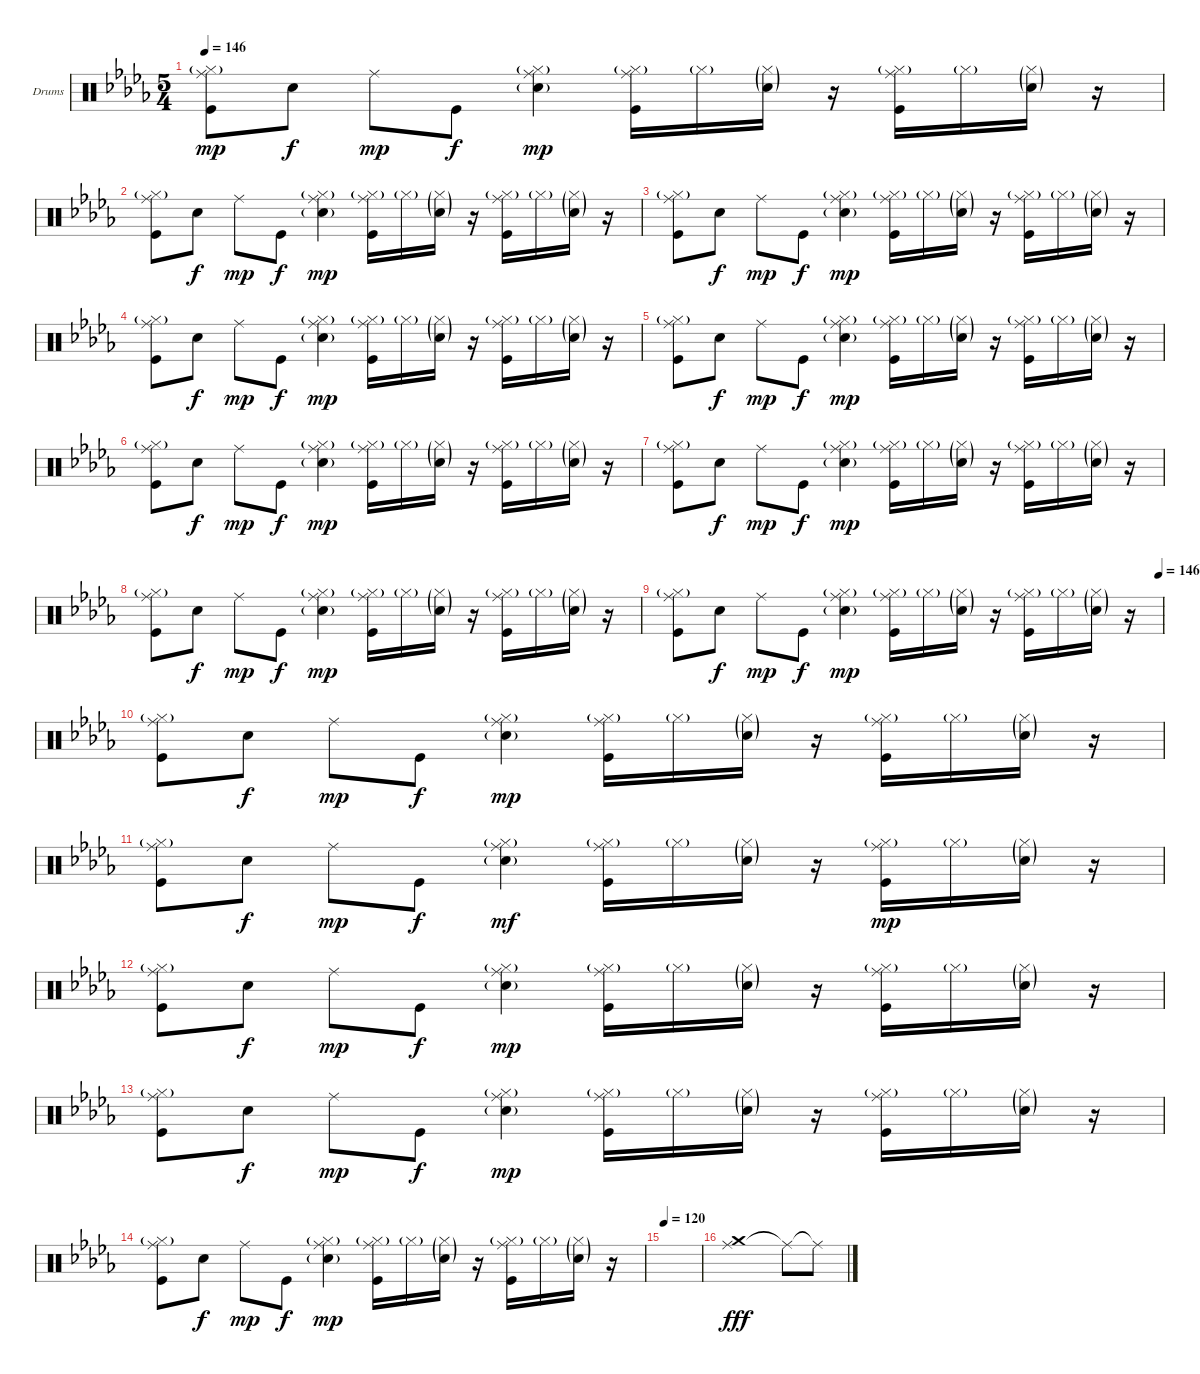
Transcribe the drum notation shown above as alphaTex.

\bracketExtendMode groupsimilarinstruments
\firstSystemTrackNameOrientation horizontal
\otherSystemsTrackNameOrientation horizontal
\track ("Drumkit" "Drums") {instrument percussion}
\staff {score}
\articulation defaults
\ts (5 4)
\tempo 146
\clef neutral
\ks db
("Hi-Hat (closed)"{g} "Ride (middle)" "Kick (hit)").8{dy mp} "Snare (hit) 2".8{dy f} "Ride (middle)".8{dy mp} "Kick (hit)".8{dy f} ("Hi-Hat (closed)"{g} "Ride (middle)" "Snare (hit) 2"{g}).4{dy mp} ("Hi-Hat (closed)"{g} "Ride (middle)" "Kick (hit)").16 "Hi-Hat (closed)"{g}.16 ("Hi-Hat (closed)"{g} "Snare (hit) 2"{g}).16 r.16 ("Hi-Hat (closed)"{g} "Ride (middle)" "Kick (hit)").16 "Hi-Hat (closed)"{g}.16 ("Hi-Hat (closed)"{g} "Snare (hit) 2"{g}).16 r.16 |
("Hi-Hat (closed)"{g} "Ride (middle)" "Kick (hit)").8 "Snare (hit) 2".8{dy f} "Ride (middle)".8{dy mp} "Kick (hit)".8{dy f} ("Hi-Hat (closed)"{g} "Ride (middle)" "Snare (hit) 2"{g}).4{dy mp} ("Hi-Hat (closed)"{g} "Ride (middle)" "Kick (hit)").16 "Hi-Hat (closed)"{g}.16 ("Hi-Hat (closed)"{g} "Snare (hit) 2"{g}).16 r.16 ("Hi-Hat (closed)"{g} "Ride (middle)" "Kick (hit)").16 "Hi-Hat (closed)"{g}.16 ("Hi-Hat (closed)"{g} "Snare (hit) 2"{g}).16 r.16 |
("Hi-Hat (closed)"{g} "Ride (middle)" "Kick (hit)").8 "Snare (hit) 2".8{dy f} "Ride (middle)".8{dy mp} "Kick (hit)".8{dy f} ("Hi-Hat (closed)"{g} "Ride (middle)" "Snare (hit) 2"{g}).4{dy mp} ("Hi-Hat (closed)"{g} "Ride (middle)" "Kick (hit)").16 "Hi-Hat (closed)"{g}.16 ("Hi-Hat (closed)"{g} "Snare (hit) 2"{g}).16 r.16 ("Hi-Hat (closed)"{g} "Ride (middle)" "Kick (hit)").16 "Hi-Hat (closed)"{g}.16 ("Hi-Hat (closed)"{g} "Snare (hit) 2"{g}).16 r.16 |
("Hi-Hat (closed)"{g} "Ride (middle)" "Kick (hit)").8 "Snare (hit) 2".8{dy f} "Ride (middle)".8{dy mp} "Kick (hit)".8{dy f} ("Hi-Hat (closed)"{g} "Ride (middle)" "Snare (hit) 2"{g}).4{dy mp} ("Hi-Hat (closed)"{g} "Ride (middle)" "Kick (hit)").16 "Hi-Hat (closed)"{g}.16 ("Hi-Hat (closed)"{g} "Snare (hit) 2"{g}).16 r.16 ("Hi-Hat (closed)"{g} "Ride (middle)" "Kick (hit)").16 "Hi-Hat (closed)"{g}.16 ("Hi-Hat (closed)"{g} "Snare (hit) 2"{g}).16 r.16 |
("Hi-Hat (closed)"{g} "Ride (middle)" "Kick (hit)").8 "Snare (hit) 2".8{dy f} "Ride (middle)".8{dy mp} "Kick (hit)".8{dy f} ("Hi-Hat (closed)"{g} "Ride (middle)" "Snare (hit) 2"{g}).4{dy mp} ("Hi-Hat (closed)"{g} "Ride (middle)" "Kick (hit)").16 "Hi-Hat (closed)"{g}.16 ("Hi-Hat (closed)"{g} "Snare (hit) 2"{g}).16 r.16 ("Hi-Hat (closed)"{g} "Ride (middle)" "Kick (hit)").16 "Hi-Hat (closed)"{g}.16 ("Hi-Hat (closed)"{g} "Snare (hit) 2"{g}).16 r.16 |
("Hi-Hat (closed)"{g} "Ride (middle)" "Kick (hit)").8 "Snare (hit) 2".8{dy f} "Ride (middle)".8{dy mp} "Kick (hit)".8{dy f} ("Hi-Hat (closed)"{g} "Ride (middle)" "Snare (hit) 2"{g}).4{dy mp} ("Hi-Hat (closed)"{g} "Ride (middle)" "Kick (hit)").16 "Hi-Hat (closed)"{g}.16 ("Hi-Hat (closed)"{g} "Snare (hit) 2"{g}).16 r.16 ("Hi-Hat (closed)"{g} "Ride (middle)" "Kick (hit)").16 "Hi-Hat (closed)"{g}.16 ("Hi-Hat (closed)"{g} "Snare (hit) 2"{g}).16 r.16 |
("Hi-Hat (closed)"{g} "Ride (middle)" "Kick (hit)").8 "Snare (hit) 2".8{dy f} "Ride (middle)".8{dy mp} "Kick (hit)".8{dy f} ("Hi-Hat (closed)"{g} "Ride (middle)" "Snare (hit) 2"{g}).4{dy mp} ("Hi-Hat (closed)"{g} "Ride (middle)" "Kick (hit)").16 "Hi-Hat (closed)"{g}.16 ("Hi-Hat (closed)"{g} "Snare (hit) 2"{g}).16 r.16 ("Hi-Hat (closed)"{g} "Ride (middle)" "Kick (hit)").16 "Hi-Hat (closed)"{g}.16 ("Hi-Hat (closed)"{g} "Snare (hit) 2"{g}).16 r.16 |
("Hi-Hat (closed)"{g} "Ride (middle)" "Kick (hit)").8 "Snare (hit) 2".8{dy f} "Ride (middle)".8{dy mp} "Kick (hit)".8{dy f} ("Hi-Hat (closed)"{g} "Ride (middle)" "Snare (hit) 2"{g}).4{dy mp} ("Hi-Hat (closed)"{g} "Ride (middle)" "Kick (hit)").16 "Hi-Hat (closed)"{g}.16 ("Hi-Hat (closed)"{g} "Snare (hit) 2"{g}).16 r.16 ("Hi-Hat (closed)"{g} "Ride (middle)" "Kick (hit)").16 "Hi-Hat (closed)"{g}.16 ("Hi-Hat (closed)"{g} "Snare (hit) 2"{g}).16 r.16 |
\tempo (146 0.99375)
("Hi-Hat (closed)"{g} "Ride (middle)" "Kick (hit)").8 "Snare (hit) 2".8{dy f} "Ride (middle)".8{dy mp} "Kick (hit)".8{dy f} ("Hi-Hat (closed)"{g} "Ride (middle)" "Snare (hit) 2"{g}).4{dy mp} ("Hi-Hat (closed)"{g} "Ride (middle)" "Kick (hit)").16 "Hi-Hat (closed)"{g}.16 ("Hi-Hat (closed)"{g} "Snare (hit) 2"{g}).16 r.16 ("Hi-Hat (closed)"{g} "Ride (middle)" "Kick (hit)").16 "Hi-Hat (closed)"{g}.16 ("Hi-Hat (closed)"{g} "Snare (hit) 2"{g}).16 r.16 |
("Hi-Hat (closed)"{g} "Ride (middle)" "Kick (hit)").8 "Snare (hit) 2".8{dy f} "Ride (middle)".8{dy mp} "Kick (hit)".8{dy f} ("Hi-Hat (closed)"{g} "Ride (middle)" "Snare (hit) 2"{g}).4{dy mp} ("Hi-Hat (closed)"{g} "Ride (middle)" "Kick (hit)").16 "Hi-Hat (closed)"{g}.16 ("Hi-Hat (closed)"{g} "Snare (hit) 2"{g}).16 r.16 ("Hi-Hat (closed)"{g} "Ride (middle)" "Kick (hit)").16 "Hi-Hat (closed)"{g}.16 ("Hi-Hat (closed)"{g} "Snare (hit) 2"{g}).16 r.16 |
("Hi-Hat (closed)"{g} "Ride (middle)" "Kick (hit)").8 "Snare (hit) 2".8{dy f} "Ride (middle)".8{dy mp} "Kick (hit)".8{dy f} ("Hi-Hat (closed)"{g} "Ride (middle)" "Snare (hit) 2"{g}).4{dy mf} ("Hi-Hat (closed)"{g} "Ride (middle)" "Kick (hit)").16 "Hi-Hat (closed)"{g}.16 ("Hi-Hat (closed)"{g} "Snare (hit) 2"{g}).16 r.16 ("Hi-Hat (closed)"{g} "Ride (middle)" "Kick (hit)").16{dy mp} "Hi-Hat (closed)"{g}.16 ("Hi-Hat (closed)"{g} "Snare (hit) 2"{g}).16 r.16 |
("Hi-Hat (closed)"{g} "Ride (middle)" "Kick (hit)").8 "Snare (hit) 2".8{dy f} "Ride (middle)".8{dy mp} "Kick (hit)".8{dy f} ("Hi-Hat (closed)"{g} "Ride (middle)" "Snare (hit) 2"{g}).4{dy mp} ("Hi-Hat (closed)"{g} "Ride (middle)" "Kick (hit)").16 "Hi-Hat (closed)"{g}.16 ("Hi-Hat (closed)"{g} "Snare (hit) 2"{g}).16 r.16 ("Hi-Hat (closed)"{g} "Ride (middle)" "Kick (hit)").16 "Hi-Hat (closed)"{g}.16 ("Hi-Hat (closed)"{g} "Snare (hit) 2"{g}).16 r.16 |
("Hi-Hat (closed)"{g} "Ride (middle)" "Kick (hit)").8 "Snare (hit) 2".8{dy f} "Ride (middle)".8{dy mp} "Kick (hit)".8{dy f} ("Hi-Hat (closed)"{g} "Ride (middle)" "Snare (hit) 2"{g}).4{dy mp} ("Hi-Hat (closed)"{g} "Ride (middle)" "Kick (hit)").16 "Hi-Hat (closed)"{g}.16 ("Hi-Hat (closed)"{g} "Snare (hit) 2"{g}).16 r.16 ("Hi-Hat (closed)"{g} "Ride (middle)" "Kick (hit)").16 "Hi-Hat (closed)"{g}.16 ("Hi-Hat (closed)"{g} "Snare (hit) 2"{g}).16 r.16 |
("Hi-Hat (closed)"{g} "Ride (middle)" "Kick (hit)").8 "Snare (hit) 2".8{dy f} "Ride (middle)".8{dy mp} "Kick (hit)".8{dy f} ("Hi-Hat (closed)"{g} "Ride (middle)" "Snare (hit) 2"{g}).4{dy mp} ("Hi-Hat (closed)"{g} "Ride (middle)" "Kick (hit)").16 "Hi-Hat (closed)"{g}.16 ("Hi-Hat (closed)"{g} "Snare (hit) 2"{g}).16 r.16 ("Hi-Hat (closed)"{g} "Ride (middle)" "Kick (hit)").16 "Hi-Hat (closed)"{g}.16 ("Hi-Hat (closed)"{g} "Snare (hit) 2"{g}).16 r.16 |
\tempo 120
|
("Ride (middle)" "Crash medium (hit)").1{dy fff} "Ride (middle)"{t}.8 "Ride (middle)"{t}.8
